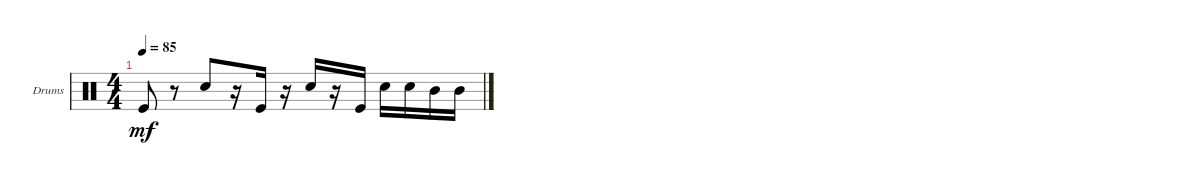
\defaultSystemsLayout 4
\bracketExtendMode groupsimilarinstruments
\firstSystemTrackNameOrientation horizontal
\otherSystemsTrackNameOrientation horizontal
\track ("Drumkit" "Drums") {instrument percussion}
\staff {score}
\articulation defaults
\ts (4 4)
\tempo 85
\clef neutral
\ks c "Kick (hit)".8{dy mf}
r.8 "Snare (hit) 2".8 r.16 "Kick (hit)".16 r.16 "Snare (hit) 2".16 r.16 "Kick (hit)".16 "Snare (hit) 2".16 "Snare (hit) 2".16 "Mid Tom (hit)".16 "Mid Tom (hit)".16
